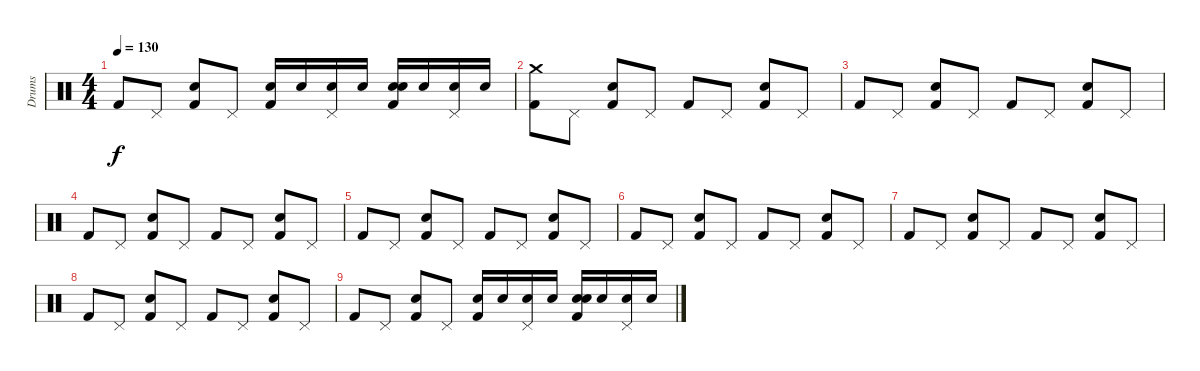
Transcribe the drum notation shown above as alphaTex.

\track ("Drums" "Drums") {instrument percussion}
\staff {score}
\articulation defaults
\ts (4 4)
\tempo 130
\clef neutral
\ks c "Kick (hit) 2".8{dy f} "Pedal Hi-Hat (hit)".8
("Snare (hit) 2" "Kick (hit) 2").8 "Pedal Hi-Hat (hit)".8 ("Electric Snare (hit)" "Kick (hit) 2").16 "Electric Snare (hit)".16 ("Pedal Hi-Hat (hit)" "Electric Snare (hit)").16 "Electric Snare (hit)".16 ("Electric Snare (hit)" "Snare (hit) 2" "Kick (hit) 2").16 "Electric Snare (hit)".16 ("Pedal Hi-Hat (hit)" "Electric Snare (hit)").16 "Electric Snare (hit)".16 |
("Crash medium (hit)" "Kick (hit) 2").8 "Pedal Hi-Hat (hit)".8{volume 13} ("Snare (hit) 2" "Kick (hit) 2").8{volume 13} "Pedal Hi-Hat (hit)".8{volume 13} "Kick (hit) 2".8{volume 13} "Pedal Hi-Hat (hit)".8{volume 13} ("Snare (hit) 2" "Kick (hit) 2").8{volume 13} "Pedal Hi-Hat (hit)".8{volume 12} |
"Kick (hit) 2".8{volume 12} "Pedal Hi-Hat (hit)".8{volume 12} ("Snare (hit) 2" "Kick (hit) 2").8{volume 12} "Pedal Hi-Hat (hit)".8{volume 11} "Kick (hit) 2".8{volume 11} "Pedal Hi-Hat (hit)".8{volume 11} ("Snare (hit) 2" "Kick (hit) 2").8{volume 11} "Pedal Hi-Hat (hit)".8{volume 11} |
"Kick (hit) 2".8{volume 10} "Pedal Hi-Hat (hit)".8{volume 10} ("Snare (hit) 2" "Kick (hit) 2").8{volume 10} "Pedal Hi-Hat (hit)".8{volume 10} "Kick (hit) 2".8{volume 10} "Pedal Hi-Hat (hit)".8{volume 9} ("Snare (hit) 2" "Kick (hit) 2").8{volume 9} "Pedal Hi-Hat (hit)".8{volume 9} |
"Kick (hit) 2".8{volume 9} "Pedal Hi-Hat (hit)".8{volume 8} ("Snare (hit) 2" "Kick (hit) 2").8{volume 8} "Pedal Hi-Hat (hit)".8{volume 8} "Kick (hit) 2".8{volume 8} "Pedal Hi-Hat (hit)".8{volume 8} ("Snare (hit) 2" "Kick (hit) 2").8{volume 7} "Pedal Hi-Hat (hit)".8{volume 7} |
"Kick (hit) 2".8{volume 7} "Pedal Hi-Hat (hit)".8{volume 7} ("Snare (hit) 2" "Kick (hit) 2").8{volume 7} "Pedal Hi-Hat (hit)".8{volume 6} "Kick (hit) 2".8{volume 6} "Pedal Hi-Hat (hit)".8{volume 6} ("Snare (hit) 2" "Kick (hit) 2").8{volume 6} "Pedal Hi-Hat (hit)".8{volume 5} |
"Kick (hit) 2".8{volume 5} "Pedal Hi-Hat (hit)".8{volume 5} ("Snare (hit) 2" "Kick (hit) 2").8{volume 5} "Pedal Hi-Hat (hit)".8{volume 5} "Kick (hit) 2".8{volume 4} "Pedal Hi-Hat (hit)".8{volume 4} ("Snare (hit) 2" "Kick (hit) 2").8{volume 4} "Pedal Hi-Hat (hit)".8{volume 4} |
"Kick (hit) 2".8{volume 4} "Pedal Hi-Hat (hit)".8{volume 3} ("Snare (hit) 2" "Kick (hit) 2").8{volume 3} "Pedal Hi-Hat (hit)".8{volume 3} "Kick (hit) 2".8{volume 3} "Pedal Hi-Hat (hit)".8{volume 2} ("Snare (hit) 2" "Kick (hit) 2").8{volume 2} "Pedal Hi-Hat (hit)".8{volume 2} |
"Kick (hit) 2".8{volume 2} "Pedal Hi-Hat (hit)".8{volume 2} ("Snare (hit) 2" "Kick (hit) 2").8{volume 1} "Pedal Hi-Hat (hit)".8{volume 1} ("Electric Snare (hit)" "Kick (hit) 2").16{volume 1} "Electric Snare (hit)".16{volume 1} ("Pedal Hi-Hat (hit)" "Electric Snare (hit)").16 "Electric Snare (hit)".16{volume 1} ("Electric Snare (hit)" "Snare (hit) 2" "Kick (hit) 2").16{volume 1} "Electric Snare (hit)".16{volume 0} ("Pedal Hi-Hat (hit)" "Electric Snare (hit)").16 "Electric Snare (hit)".16
